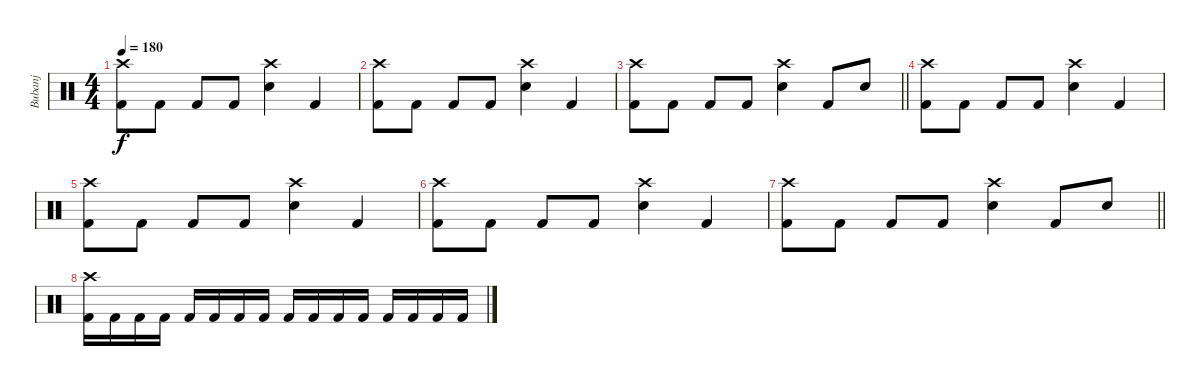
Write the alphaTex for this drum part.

\track ("Bubanj" "Bubanj") {instrument percussion}
\staff
\articulation defaults
\ts (4 4)
\tempo 180
\clef neutral
\ks c
("Crash high (hit)" "Kick (hit) 2").8{dy f} "Kick (hit) 2".8 "Kick (hit) 2".8 "Kick (hit) 2".8 ("Crash high (hit)" "Snare (hit) 2").4 "Kick (hit) 2".4 |
("Crash high (hit)" "Kick (hit) 2").8 "Kick (hit) 2".8 "Kick (hit) 2".8 "Kick (hit) 2".8 ("Crash high (hit)" "Snare (hit) 2").4 "Kick (hit) 2".4 |
\barLineRight lightlight
("Crash high (hit)" "Kick (hit) 2").8 "Kick (hit) 2".8 "Kick (hit) 2".8 "Kick (hit) 2".8 ("Crash high (hit)" "Snare (hit) 2").4 "Kick (hit) 2".8 "Snare (hit) 2".8 |
("Crash high (hit)" "Kick (hit) 2").8 "Kick (hit) 2".8 "Kick (hit) 2".8 "Kick (hit) 2".8 ("Crash high (hit)" "Snare (hit) 2").4 "Kick (hit) 2".4 |
("Crash high (hit)" "Kick (hit) 2").8 "Kick (hit) 2".8 "Kick (hit) 2".8 "Kick (hit) 2".8 ("Crash high (hit)" "Snare (hit) 2").4 "Kick (hit) 2".4 |
("Crash high (hit)" "Kick (hit) 2").8 "Kick (hit) 2".8 "Kick (hit) 2".8 "Kick (hit) 2".8 ("Crash high (hit)" "Snare (hit) 2").4 "Kick (hit) 2".4 |
\barLineRight lightlight
("Crash high (hit)" "Kick (hit) 2").8 "Kick (hit) 2".8 "Kick (hit) 2".8 "Kick (hit) 2".8 ("Crash high (hit)" "Snare (hit) 2").4 "Kick (hit) 2".8 "Snare (hit) 2".8 |
("Crash high (hit)" "Kick (hit) 2").16 "Kick (hit) 2".16 "Kick (hit) 2".16 "Kick (hit) 2".16 "Kick (hit) 2".16 "Kick (hit) 2".16 "Kick (hit) 2".16 "Kick (hit) 2".16 "Kick (hit) 2".16 "Kick (hit) 2".16 "Kick (hit) 2".16 "Kick (hit) 2".16 "Kick (hit) 2".16 "Kick (hit) 2".16 "Kick (hit) 2".16 "Kick (hit) 2".16
